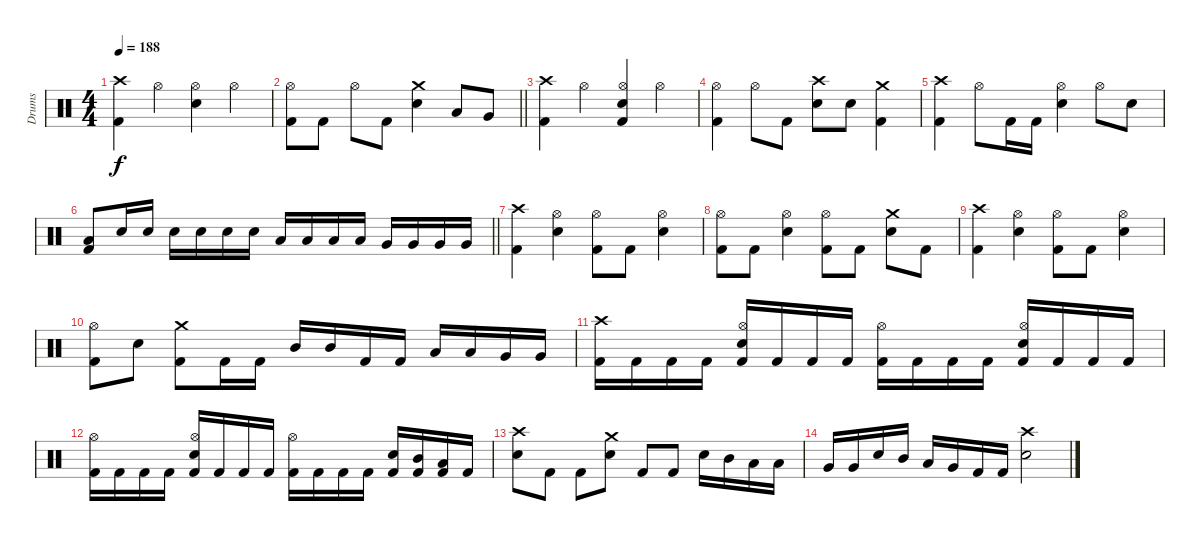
\track ("Drums" "Drums") {instrument percussion}
\staff {score}
\articulation defaults
\ts (4 4)
\tempo 188
\clef neutral
\ks c
("Crash high (hit)" "Kick (hit) 2").4{dy f} "Hi-Hat (open)".4 ("Hi-Hat (open)" "Electric Snare (hit)").4 "Hi-Hat (open)".4 |
\barLineRight lightlight
("Hi-Hat (open)" "Kick (hit) 2").8 "Kick (hit) 2".8 "Hi-Hat (open)".8 "Kick (hit) 2".8 ("Crash medium (hit)" "Electric Snare (hit)").4 "Low Tom (hit)".8 "Very Low Tom (hit)".8 |
("Crash high (hit)" "Kick (hit) 2").4 "Hi-Hat (open)".4 ("Hi-Hat (open)" "Electric Snare (hit)" "Kick (hit) 2").4 "Hi-Hat (open)".4 |
("Hi-Hat (open)" "Kick (hit) 2").4 "Hi-Hat (open)".8 "Kick (hit) 2".8 ("Crash high (hit)" "Electric Snare (hit)").8 "Electric Snare (hit)".8 ("Crash medium (hit)" "Kick (hit) 2").4 |
("Crash high (hit)" "Kick (hit) 2").4 "Hi-Hat (open)".8 "Kick (hit) 2".16 "Kick (hit) 2".16 ("Hi-Hat (open)" "Electric Snare (hit)").4 "Hi-Hat (open)".8 "Electric Snare (hit)".8 |
\barLineRight lightlight
("Low Tom (hit)" "Kick (hit) 2").8 "Electric Snare (hit)".16 "Electric Snare (hit)".16 "Electric Snare (hit)".16 "Electric Snare (hit)".16 "Electric Snare (hit)".16 "Electric Snare (hit)".16 "Low Tom (hit)".16 "Low Tom (hit)".16 "Low Tom (hit)".16 "Low Tom (hit)".16 "Very Low Tom (hit)".16 "Very Low Tom (hit)".16 "Very Low Tom (hit)".16 "Very Low Tom (hit)".16 |
("Crash high (hit)" "Kick (hit) 2").4 ("Hi-Hat (open)" "Electric Snare (hit)").4 ("Hi-Hat (open)" "Kick (hit) 2").8 "Kick (hit) 2".8 ("Hi-Hat (open)" "Electric Snare (hit)").4 |
("Hi-Hat (open)" "Kick (hit) 2").8 "Kick (hit) 2".8 ("Hi-Hat (open)" "Electric Snare (hit)").4 ("Hi-Hat (open)" "Kick (hit) 2").8 "Kick (hit) 2".8 ("Crash medium (hit)" "Electric Snare (hit)").8 "Kick (hit) 2".8 |
("Crash high (hit)" "Kick (hit) 2").4 ("Hi-Hat (open)" "Electric Snare (hit)").4 ("Hi-Hat (open)" "Kick (hit) 2").8 "Kick (hit) 2".8 ("Hi-Hat (open)" "Electric Snare (hit)").4 |
("Hi-Hat (open)" "Kick (hit) 2").8 "Electric Snare (hit)".8 ("Crash medium (hit)" "Kick (hit) 2").8 "Kick (hit) 2".16 "Kick (hit) 2".16 "Mid Tom (hit)".16 "Mid Tom (hit)".16 "Kick (hit) 2".16 "Kick (hit) 2".16 "Low Tom (hit)".16 "Low Tom (hit)".16 "Very Low Tom (hit)".16 "Very Low Tom (hit)".16 |
("Crash high (hit)" "Kick (hit) 2").16 "Kick (hit) 2".16 "Kick (hit) 2".16 "Kick (hit) 2".16 ("Hi-Hat (open)" "Electric Snare (hit)" "Kick (hit) 2").16 "Kick (hit) 2".16 "Kick (hit) 2".16 "Kick (hit) 2".16 ("Hi-Hat (open)" "Kick (hit) 2").16 "Kick (hit) 2".16 "Kick (hit) 2".16 "Kick (hit) 2".16 ("Hi-Hat (open)" "Electric Snare (hit)" "Kick (hit) 2").16 "Kick (hit) 2".16 "Kick (hit) 2".16 "Kick (hit) 2".16 |
("Hi-Hat (open)" "Kick (hit) 2").16 "Kick (hit) 2".16 "Kick (hit) 2".16 "Kick (hit) 2".16 ("Hi-Hat (open)" "Electric Snare (hit)" "Kick (hit) 2").16 "Kick (hit) 2".16 "Kick (hit) 2".16 "Kick (hit) 2".16 ("Hi-Hat (open)" "Kick (hit) 2").16 "Kick (hit) 2".16 "Kick (hit) 2".16 "Kick (hit) 2".16 ("Electric Snare (hit)" "Kick (hit) 2").16 ("Mid Tom (hit)" "Kick (hit) 2").16 ("Low Tom (hit)" "Kick (hit) 2").16 "Kick (hit) 2".16 |
("Crash high (hit)" "Electric Snare (hit)").8 "Kick (hit) 2".8 "Kick (hit) 2".8 ("Crash medium (hit)" "Electric Snare (hit)").8 "Kick (hit) 2".8 "Kick (hit) 2".8 "Electric Snare (hit)".16 "Mid Tom (hit)".16 "Low Tom (hit)".16 "Low Tom (hit)".16 |
"Very Low Tom (hit)".16 "Very Low Tom (hit)".16 "Electric Snare (hit)".16 "Mid Tom (hit)".16 "Low Tom (hit)".16 "Very Low Tom (hit)".16 "Kick (hit) 2".16 "Kick (hit) 2".16 ("Crash high (hit)" "Electric Snare (hit)").2
